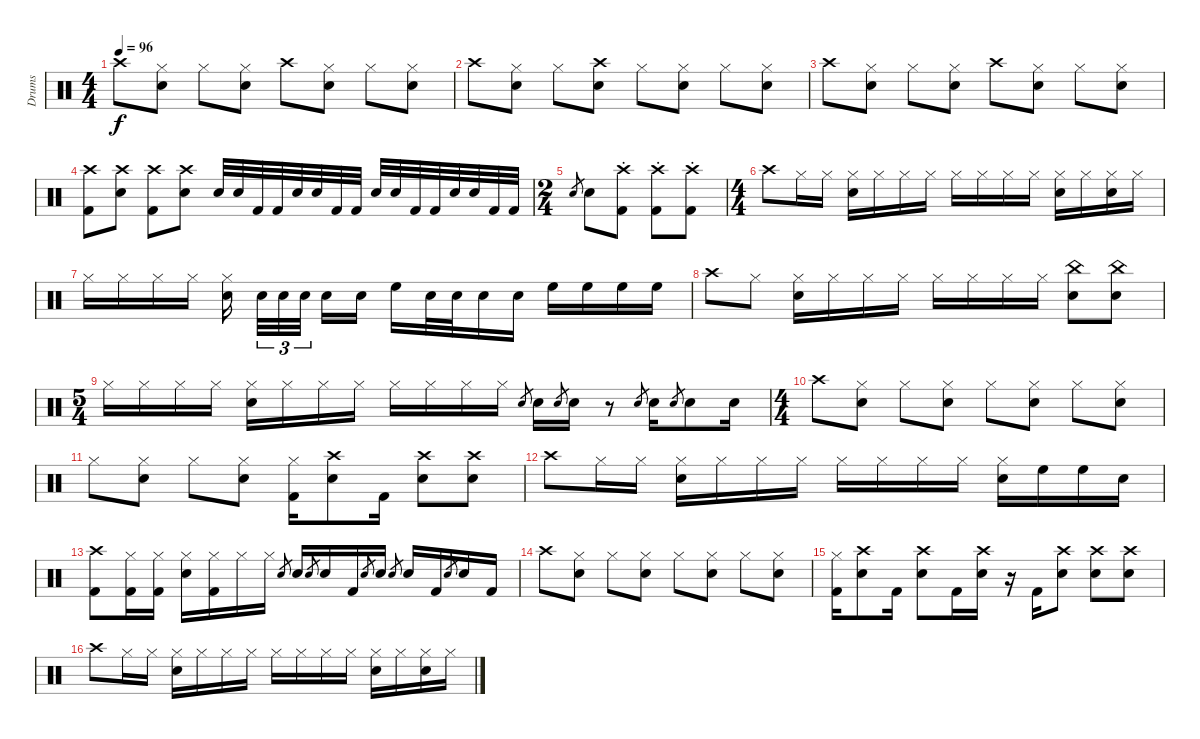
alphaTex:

\track ("Drums" "Drums") {instrument percussion}
\staff {score}
\articulation defaults
\ts (4 4)
\tempo 96
\clef neutral
\ks c "Crash high (hit)".8{dy f}
("Hi-Hat (closed)" "Snare (hit) 2").8 "Hi-Hat (closed)".8 ("Hi-Hat (closed)" "Snare (hit) 2").8 "Crash high (hit)".8 ("Hi-Hat (closed)" "Snare (hit) 2").8 "Hi-Hat (closed)".8 ("Hi-Hat (closed)" "Snare (hit) 2").8 |
"Crash high (hit)".8 ("Hi-Hat (closed)" "Snare (hit) 2").8 "Hi-Hat (closed)".8 ("Crash high (hit)" "Snare (hit) 2").8 "Hi-Hat (closed)".8 ("Hi-Hat (closed)" "Snare (hit) 2").8 "Hi-Hat (closed)".8 ("Hi-Hat (closed)" "Snare (hit) 2").8 |
"Crash high (hit)".8 ("Hi-Hat (closed)" "Snare (hit) 2").8 "Hi-Hat (closed)".8 ("Hi-Hat (closed)" "Snare (hit) 2").8 "Crash high (hit)".8 ("Hi-Hat (closed)" "Snare (hit) 2").8 "Hi-Hat (closed)".8 ("Hi-Hat (closed)" "Snare (hit) 2").8 |
("Crash high (hit)" "Kick (hit) 2").8 ("Crash high (hit)" "Snare (hit) 2").8 ("Crash high (hit)" "Kick (hit) 2").8 ("Crash high (hit)" "Snare (hit) 2").8 "Snare (hit) 2".32 "Snare (hit) 2".32 "Kick (hit) 2".32 "Kick (hit) 2".32 "Snare (hit) 2".32 "Snare (hit) 2".32 "Kick (hit) 2".32 "Kick (hit) 2".32 "Snare (hit) 2".32 "Snare (hit) 2".32 "Kick (hit) 2".32 "Kick (hit) 2".32 "Snare (hit) 2".32 "Snare (hit) 2".32 "Kick (hit) 2".32 "Kick (hit) 2".32 |
\ts (2 4)
"Snare (hit) 2".8{gr} "Snare (hit) 2".8 ("Crash high (hit)"{st} "Kick (hit) 2").8 ("Crash high (hit)"{st} "Kick (hit) 2").8 ("Crash high (hit)"{st} "Kick (hit) 2").8 |
\ts (4 4)
"Crash high (hit)".8 "Hi-Hat (closed)".16 "Hi-Hat (closed)".16 ("Hi-Hat (closed)" "Snare (hit) 2").16 "Hi-Hat (closed)".16 "Hi-Hat (closed)".16 "Hi-Hat (closed)".16 "Hi-Hat (closed)".16 "Hi-Hat (closed)".16 "Hi-Hat (closed)".16 "Hi-Hat (closed)".16 ("Hi-Hat (closed)" "Snare (hit) 2").16 "Hi-Hat (closed)".16 ("Hi-Hat (closed)" "Snare (hit) 2").16 "Hi-Hat (closed)".16 |
"Hi-Hat (closed)".16 "Hi-Hat (closed)".16 "Hi-Hat (closed)".16 "Hi-Hat (closed)".16 ("Hi-Hat (closed)" "Snare (hit) 2").16{beam splitsecondary} "Snare (hit) 2".32{tu (3 2)} "Snare (hit) 2".32{tu (3 2)} "Snare (hit) 2".32{tu (3 2) beam splitsecondary} "Snare (hit) 2".16 "Snare (hit) 2".16 "High Floor Tom (hit)".16 "Snare (hit) 2".32 "Snare (hit) 2".32 "Snare (hit) 2".16 "Snare (hit) 2".16 "High Floor Tom (hit)".16 "High Floor Tom (hit)".16 "High Floor Tom (hit)".16 "High Floor Tom (hit)".16 |
"Crash high (hit)".8 "Hi-Hat (closed)".8 ("Hi-Hat (closed)" "Snare (hit) 2").16 "Hi-Hat (closed)".16 "Hi-Hat (closed)".16 "Hi-Hat (closed)".16 "Hi-Hat (closed)".16 "Hi-Hat (closed)".16 "Hi-Hat (closed)".16 "Hi-Hat (closed)".16 ("China (hit)" "Snare (hit) 2").8 ("China (hit)" "Snare (hit) 2").8 |
\ts (5 4)
"Hi-Hat (closed)".16 "Hi-Hat (closed)".16 "Hi-Hat (closed)".16 "Hi-Hat (closed)".16 ("Hi-Hat (closed)" "Snare (hit) 2").16 "Hi-Hat (closed)".16 "Hi-Hat (closed)".16 "Hi-Hat (closed)".16 "Hi-Hat (closed)".16 "Hi-Hat (closed)".16 "Hi-Hat (closed)".16 "Hi-Hat (closed)".16 "Snare (hit) 2".8{gr} "Snare (hit) 2".16 "Snare (hit) 2".8{gr} "Snare (hit) 2".16 r.8 "Snare (hit) 2".8{gr} "Snare (hit) 2".16 "Snare (hit) 2".8{gr} "Snare (hit) 2".8 "Snare (hit) 2".16 |
\ts (4 4)
"Crash high (hit)".8 ("Hi-Hat (closed)" "Snare (hit) 2").8 "Hi-Hat (closed)".8 ("Hi-Hat (closed)" "Snare (hit) 2").8 "Hi-Hat (closed)".8 ("Hi-Hat (closed)" "Snare (hit) 2").8 "Hi-Hat (closed)".8 ("Hi-Hat (closed)" "Snare (hit) 2").8 |
"Hi-Hat (closed)".8 ("Hi-Hat (closed)" "Snare (hit) 2").8 "Hi-Hat (closed)".8 ("Hi-Hat (closed)" "Snare (hit) 2").8 ("Hi-Hat (closed)" "Kick (hit) 2").16 ("Crash high (hit)" "Snare (hit) 2").8 "Kick (hit) 2".16 ("Crash high (hit)" "Snare (hit) 2").8 ("Crash high (hit)" "Snare (hit) 2").8 |
"Crash high (hit)".8 "Hi-Hat (closed)".16 "Hi-Hat (closed)".16 ("Hi-Hat (closed)" "Snare (hit) 2").16 "Hi-Hat (closed)".16 "Hi-Hat (closed)".16 "Hi-Hat (closed)".16 "Hi-Hat (closed)".16 "Hi-Hat (closed)".16 "Hi-Hat (closed)".16 "Hi-Hat (closed)".16 ("Hi-Hat (closed)" "Snare (hit) 2").16 "High Floor Tom (hit)".16 "High Floor Tom (hit)".16 "Snare (hit) 2".16 |
("Crash high (hit)" "Kick (hit) 2").8 ("Hi-Hat (closed)" "Kick (hit) 2").16 ("Hi-Hat (closed)" "Kick (hit) 2").16 ("Hi-Hat (closed)" "Snare (hit) 2").16 ("Hi-Hat (closed)" "Kick (hit) 2").16 "Hi-Hat (closed)".16 "Hi-Hat (closed)".16 "Snare (hit) 2".8{gr} "Snare (hit) 2".16 "Snare (hit) 2".8{gr} "Snare (hit) 2".16 "Kick (hit) 2".16 "Snare (hit) 2".8{gr} "Snare (hit) 2".16 "Snare (hit) 2".8{gr} "Snare (hit) 2".16 "Kick (hit) 2".16 "Snare (hit) 2".8{gr} "Snare (hit) 2".16 "Kick (hit) 2".16 |
"Crash high (hit)".8 ("Hi-Hat (closed)" "Snare (hit) 2").8 "Hi-Hat (closed)".8 ("Hi-Hat (closed)" "Snare (hit) 2").8 "Hi-Hat (closed)".8 ("Hi-Hat (closed)" "Snare (hit) 2").8 "Hi-Hat (closed)".8 ("Hi-Hat (closed)" "Snare (hit) 2").8 |
("Hi-Hat (closed)" "Kick (hit) 2").16 ("Crash high (hit)" "Snare (hit) 2").8 "Kick (hit) 2".16 ("Crash high (hit)" "Snare (hit) 2").8 "Kick (hit) 2".16 ("Crash high (hit)" "Snare (hit) 2").16 r.16 "Kick (hit) 2".16 ("Crash high (hit)" "Snare (hit) 2").8 ("Crash high (hit)" "Snare (hit) 2").8 ("Crash high (hit)" "Snare (hit) 2").8 |
"Crash high (hit)".8 "Hi-Hat (closed)".16 "Hi-Hat (closed)".16 ("Hi-Hat (closed)" "Snare (hit) 2").16 "Hi-Hat (closed)".16 "Hi-Hat (closed)".16 "Hi-Hat (closed)".16 "Hi-Hat (closed)".16 "Hi-Hat (closed)".16 "Hi-Hat (closed)".16 "Hi-Hat (closed)".16 ("Hi-Hat (closed)" "Snare (hit) 2").16 "Hi-Hat (closed)".16 ("Hi-Hat (closed)" "Snare (hit) 2").16 "Hi-Hat (closed)".16
